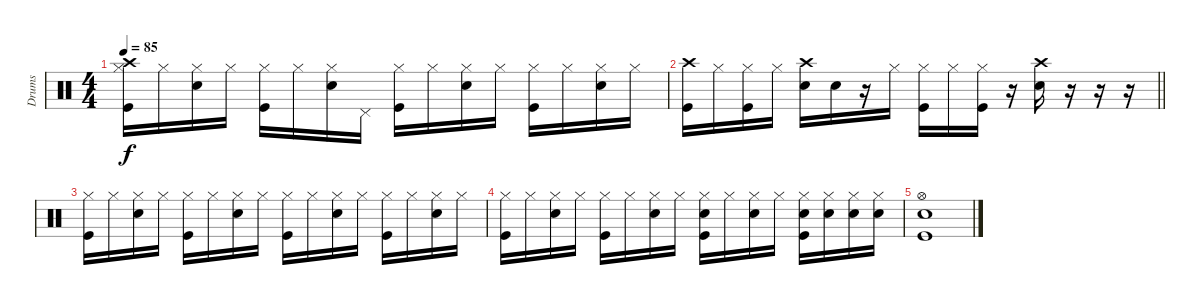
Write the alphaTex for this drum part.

\track ("Drums" "Drums") {instrument percussion}
\staff {score}
\articulation defaults
\ts (4 4)
\tempo 85
\clef neutral
\ks c
("Crash high (hit)" "Hi-Hat (closed)" "Kick (hit)").16{dy f} "Hi-Hat (closed)".16 ("Hi-Hat (closed)" "Electric Snare (hit)").16 "Hi-Hat (closed)".16 ("Hi-Hat (closed)" "Kick (hit)").16 "Hi-Hat (closed)".16 ("Hi-Hat (closed)" "Electric Snare (hit)").16 "Pedal Hi-Hat (hit)".16 ("Hi-Hat (closed)" "Kick (hit)").16 "Hi-Hat (closed)".16 ("Hi-Hat (closed)" "Electric Snare (hit)").16 "Hi-Hat (closed)".16 ("Hi-Hat (closed)" "Kick (hit)").16 "Hi-Hat (closed)".16 ("Hi-Hat (closed)" "Electric Snare (hit)").16 "Hi-Hat (closed)".16 |
\barLineRight lightlight
("Crash high (hit)" "Kick (hit)").16 "Hi-Hat (closed)".16 ("Hi-Hat (closed)" "Kick (hit)").16 "Hi-Hat (closed)".16 ("Crash high (hit)" "Electric Snare (hit)").16 "Electric Snare (hit)".16 r.16 "Hi-Hat (closed)".16 ("Hi-Hat (closed)" "Kick (hit)").16 "Hi-Hat (closed)".16 ("Hi-Hat (closed)" "Kick (hit)").16 r.16 ("Crash high (hit)" "Electric Snare (hit)").16 r.16 r.16 r.16 |
("Hi-Hat (closed)" "Kick (hit)").16 "Hi-Hat (closed)".16 ("Hi-Hat (closed)" "Electric Snare (hit)").16 "Hi-Hat (closed)".16 ("Hi-Hat (closed)" "Kick (hit)").16 "Hi-Hat (closed)".16 ("Hi-Hat (closed)" "Electric Snare (hit)").16 "Hi-Hat (closed)".16 ("Hi-Hat (closed)" "Kick (hit)").16 "Hi-Hat (closed)".16 ("Hi-Hat (closed)" "Electric Snare (hit)").16 "Hi-Hat (closed)".16 ("Hi-Hat (closed)" "Kick (hit)").16 "Hi-Hat (closed)".16 ("Hi-Hat (closed)" "Electric Snare (hit)").16 "Hi-Hat (closed)".16 |
("Hi-Hat (closed)" "Kick (hit)").16 "Hi-Hat (closed)".16 ("Hi-Hat (closed)" "Electric Snare (hit)").16 "Hi-Hat (closed)".16 ("Hi-Hat (closed)" "Kick (hit)").16 "Hi-Hat (closed)".16 ("Hi-Hat (closed)" "Electric Snare (hit)").16 "Hi-Hat (closed)".16 ("Hi-Hat (closed)" "Electric Snare (hit)" "Kick (hit)").16 "Hi-Hat (closed)".16 ("Hi-Hat (closed)" "Electric Snare (hit)").16 "Hi-Hat (closed)".16 ("Hi-Hat (closed)" "Electric Snare (hit)" "Kick (hit)").16 ("Hi-Hat (closed)" "Electric Snare (hit)").16 ("Hi-Hat (closed)" "Electric Snare (hit)").16 ("Hi-Hat (closed)" "Electric Snare (hit)").16 |
("Hi-Hat (open)" "Electric Snare (hit)" "Kick (hit)").1
